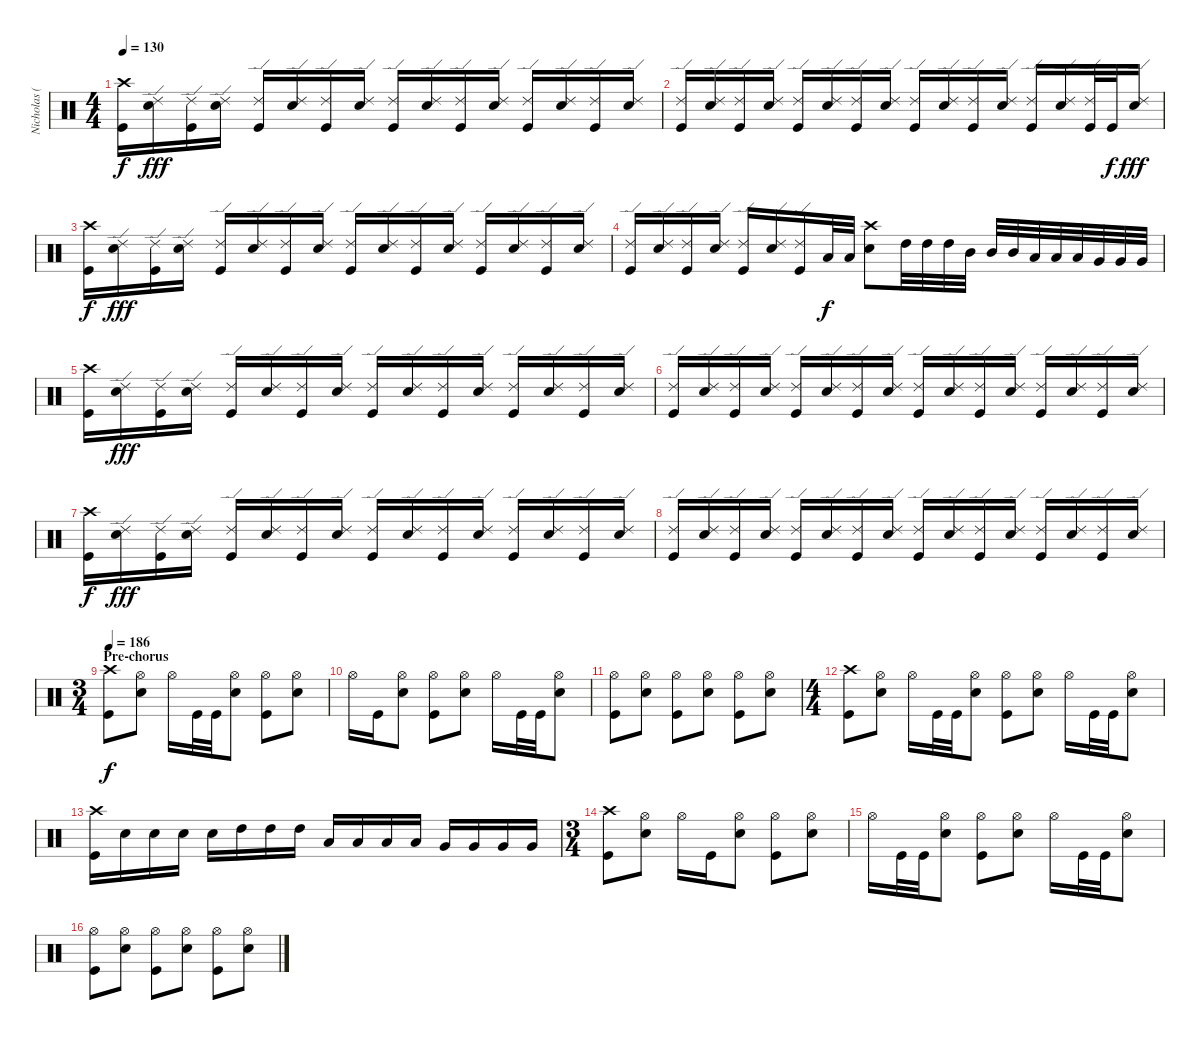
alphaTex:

\track ("Nicholas (Drums)" "Nicholas (") {instrument percussion}
\staff {score}
\articulation defaults
\ts (4 4)
\tempo 130
\clef neutral
\ks c
("Crash high (hit)" "Kick (hit)").16{dy f} ("Ride (edge) 2" "Electric Snare (hit)").16{dy fff} ("Ride (edge) 2" "Kick (hit)").16 ("Ride (edge) 2" "Electric Snare (hit)").16 ("Ride (edge) 2" "Kick (hit)").16 ("Ride (edge) 2" "Electric Snare (hit)").16 ("Ride (edge) 2" "Kick (hit)").16 ("Ride (edge) 2" "Electric Snare (hit)").16 ("Ride (edge) 2" "Kick (hit)").16 ("Ride (edge) 2" "Electric Snare (hit)").16 ("Ride (edge) 2" "Kick (hit)").16 ("Ride (edge) 2" "Electric Snare (hit)").16 ("Ride (edge) 2" "Kick (hit)").16 ("Ride (edge) 2" "Electric Snare (hit)").16 ("Ride (edge) 2" "Kick (hit)").16 ("Ride (edge) 2" "Electric Snare (hit)").16 |
("Ride (edge) 2" "Kick (hit)").16 ("Ride (edge) 2" "Electric Snare (hit)").16 ("Ride (edge) 2" "Kick (hit)").16 ("Ride (edge) 2" "Electric Snare (hit)").16 ("Ride (edge) 2" "Kick (hit)").16 ("Ride (edge) 2" "Electric Snare (hit)").16 ("Ride (edge) 2" "Kick (hit)").16 ("Ride (edge) 2" "Electric Snare (hit)").16 ("Ride (edge) 2" "Kick (hit)").16 ("Ride (edge) 2" "Electric Snare (hit)").16 ("Ride (edge) 2" "Kick (hit)").16 ("Ride (edge) 2" "Electric Snare (hit)").16 ("Ride (edge) 2" "Kick (hit)").16 ("Ride (edge) 2" "Electric Snare (hit)").16 ("Ride (edge) 2" "Kick (hit)").32 "Kick (hit)".32{dy f} ("Ride (edge) 2" "Electric Snare (hit)").16{dy fff} |
("Crash high (hit)" "Kick (hit)").16{dy f} ("Ride (edge) 2" "Electric Snare (hit)").16{dy fff} ("Ride (edge) 2" "Kick (hit)").16 ("Ride (edge) 2" "Electric Snare (hit)").16 ("Ride (edge) 2" "Kick (hit)").16 ("Ride (edge) 2" "Electric Snare (hit)").16 ("Ride (edge) 2" "Kick (hit)").16 ("Ride (edge) 2" "Electric Snare (hit)").16 ("Ride (edge) 2" "Kick (hit)").16 ("Ride (edge) 2" "Electric Snare (hit)").16 ("Ride (edge) 2" "Kick (hit)").16 ("Ride (edge) 2" "Electric Snare (hit)").16 ("Ride (edge) 2" "Kick (hit)").16 ("Ride (edge) 2" "Electric Snare (hit)").16 ("Ride (edge) 2" "Kick (hit)").16 ("Ride (edge) 2" "Electric Snare (hit)").16 |
("Ride (edge) 2" "Kick (hit)").16 ("Ride (edge) 2" "Electric Snare (hit)").16 ("Ride (edge) 2" "Kick (hit)").16 ("Ride (edge) 2" "Electric Snare (hit)").16 ("Ride (edge) 2" "Kick (hit)").16 ("Ride (edge) 2" "Electric Snare (hit)").16 ("Ride (edge) 2" "Kick (hit)").16 "Low Tom (hit)".32{dy f} "Low Tom (hit)".32 ("Crash high (hit)" "Electric Snare (hit)").8 "High Tom (hit)".32 "High Tom (hit)".32 "High Tom (hit)".32 "Mid Tom (hit)".32 "Mid Tom (hit)".32 "Mid Tom (hit)".32 "Low Tom (hit)".32 "Low Tom (hit)".32 "Low Tom (hit)".32 "Very Low Tom (hit)".32 "Very Low Tom (hit)".32 "Very Low Tom (hit)".32 |
("Crash high (hit)" "Kick (hit)").16 ("Ride (edge) 2" "Electric Snare (hit)").16{dy fff} ("Ride (edge) 2" "Kick (hit)").16 ("Ride (edge) 2" "Electric Snare (hit)").16 ("Ride (edge) 2" "Kick (hit)").16 ("Ride (edge) 2" "Electric Snare (hit)").16 ("Ride (edge) 2" "Kick (hit)").16 ("Ride (edge) 2" "Electric Snare (hit)").16 ("Ride (edge) 2" "Kick (hit)").16 ("Ride (edge) 2" "Electric Snare (hit)").16 ("Ride (edge) 2" "Kick (hit)").16 ("Ride (edge) 2" "Electric Snare (hit)").16 ("Ride (edge) 2" "Kick (hit)").16 ("Ride (edge) 2" "Electric Snare (hit)").16 ("Ride (edge) 2" "Kick (hit)").16 ("Ride (edge) 2" "Electric Snare (hit)").16 |
("Ride (edge) 2" "Kick (hit)").16 ("Ride (edge) 2" "Electric Snare (hit)").16 ("Ride (edge) 2" "Kick (hit)").16 ("Ride (edge) 2" "Electric Snare (hit)").16 ("Ride (edge) 2" "Kick (hit)").16 ("Ride (edge) 2" "Electric Snare (hit)").16 ("Ride (edge) 2" "Kick (hit)").16 ("Ride (edge) 2" "Electric Snare (hit)").16 ("Ride (edge) 2" "Kick (hit)").16 ("Ride (edge) 2" "Electric Snare (hit)").16 ("Ride (edge) 2" "Kick (hit)").16 ("Ride (edge) 2" "Electric Snare (hit)").16 ("Ride (edge) 2" "Kick (hit)").16 ("Ride (edge) 2" "Electric Snare (hit)").16 ("Ride (edge) 2" "Kick (hit)").16 ("Ride (edge) 2" "Electric Snare (hit)").16 |
("Crash high (hit)" "Kick (hit)").16{dy f} ("Ride (edge) 2" "Electric Snare (hit)").16{dy fff} ("Ride (edge) 2" "Kick (hit)").16 ("Ride (edge) 2" "Electric Snare (hit)").16 ("Ride (edge) 2" "Kick (hit)").16 ("Ride (edge) 2" "Electric Snare (hit)").16 ("Ride (edge) 2" "Kick (hit)").16 ("Ride (edge) 2" "Electric Snare (hit)").16 ("Ride (edge) 2" "Kick (hit)").16 ("Ride (edge) 2" "Electric Snare (hit)").16 ("Ride (edge) 2" "Kick (hit)").16 ("Ride (edge) 2" "Electric Snare (hit)").16 ("Ride (edge) 2" "Kick (hit)").16 ("Ride (edge) 2" "Electric Snare (hit)").16 ("Ride (edge) 2" "Kick (hit)").16 ("Ride (edge) 2" "Electric Snare (hit)").16 |
("Ride (edge) 2" "Kick (hit)").16 ("Ride (edge) 2" "Electric Snare (hit)").16 ("Ride (edge) 2" "Kick (hit)").16 ("Ride (edge) 2" "Electric Snare (hit)").16 ("Ride (edge) 2" "Kick (hit)").16 ("Ride (edge) 2" "Electric Snare (hit)").16 ("Ride (edge) 2" "Kick (hit)").16 ("Ride (edge) 2" "Electric Snare (hit)").16 ("Ride (edge) 2" "Kick (hit)").16 ("Ride (edge) 2" "Electric Snare (hit)").16 ("Ride (edge) 2" "Kick (hit)").16 ("Ride (edge) 2" "Electric Snare (hit)").16 ("Ride (edge) 2" "Kick (hit)").16 ("Ride (edge) 2" "Electric Snare (hit)").16 ("Ride (edge) 2" "Kick (hit)").16 ("Ride (edge) 2" "Electric Snare (hit)").16 |
\ts (3 4)
\section ("" "Pre-chorus")
\tempo 186
("Crash high (hit)" "Kick (hit)").8{dy f} ("Hi-Hat (open)" "Electric Snare (hit)").8 "Hi-Hat (open)".16 "Kick (hit)".32 "Kick (hit)".32 ("Hi-Hat (open)" "Electric Snare (hit)").8 ("Hi-Hat (open)" "Kick (hit)").8 ("Hi-Hat (open)" "Electric Snare (hit)").8 |
"Hi-Hat (open)".16 "Kick (hit)".16 ("Hi-Hat (open)" "Electric Snare (hit)").8 ("Hi-Hat (open)" "Kick (hit)").8 ("Hi-Hat (open)" "Electric Snare (hit)").8 "Hi-Hat (open)".16 "Kick (hit)".32 "Kick (hit)".32 ("Hi-Hat (open)" "Electric Snare (hit)").8 |
("Hi-Hat (open)" "Kick (hit)").8 ("Hi-Hat (open)" "Electric Snare (hit)").8 ("Hi-Hat (open)" "Kick (hit)").8 ("Hi-Hat (open)" "Electric Snare (hit)").8 ("Hi-Hat (open)" "Kick (hit)").8 ("Hi-Hat (open)" "Electric Snare (hit)").8 |
\ts (4 4)
("Crash high (hit)" "Kick (hit)").8 ("Hi-Hat (open)" "Electric Snare (hit)").8 "Hi-Hat (open)".16 "Kick (hit)".32 "Kick (hit)".32 ("Hi-Hat (open)" "Electric Snare (hit)").8 ("Hi-Hat (open)" "Kick (hit)").8 ("Hi-Hat (open)" "Electric Snare (hit)").8 "Hi-Hat (open)".16 "Kick (hit)".32 "Kick (hit)".32 ("Hi-Hat (open)" "Electric Snare (hit)").8 |
("Crash high (hit)" "Kick (hit)").16 "Electric Snare (hit)".16 "Electric Snare (hit)".16 "Electric Snare (hit)".16 "Electric Snare (hit)".16 "High Tom (hit)".16 "High Tom (hit)".16 "High Tom (hit)".16 "Low Tom (hit)".16 "Low Tom (hit)".16 "Low Tom (hit)".16 "Low Tom (hit)".16 "Very Low Tom (hit)".16 "Very Low Tom (hit)".16 "Very Low Tom (hit)".16 "Very Low Tom (hit)".16 |
\ts (3 4)
("Crash high (hit)" "Kick (hit)").8 ("Hi-Hat (open)" "Electric Snare (hit)").8 "Hi-Hat (open)".16 "Kick (hit)".16 ("Hi-Hat (open)" "Electric Snare (hit)").8 ("Hi-Hat (open)" "Kick (hit)").8 ("Hi-Hat (open)" "Electric Snare (hit)").8 |
"Hi-Hat (open)".16 "Kick (hit)".32 "Kick (hit)".32 ("Hi-Hat (open)" "Electric Snare (hit)").8 ("Hi-Hat (open)" "Kick (hit)").8 ("Hi-Hat (open)" "Electric Snare (hit)").8 "Hi-Hat (open)".16 "Kick (hit)".32 "Kick (hit)".32 ("Hi-Hat (open)" "Electric Snare (hit)").8 |
("Hi-Hat (open)" "Kick (hit)").8 ("Hi-Hat (open)" "Electric Snare (hit)").8 ("Hi-Hat (open)" "Kick (hit)").8 ("Hi-Hat (open)" "Electric Snare (hit)").8 ("Hi-Hat (open)" "Kick (hit)").8 ("Hi-Hat (open)" "Electric Snare (hit)").8
